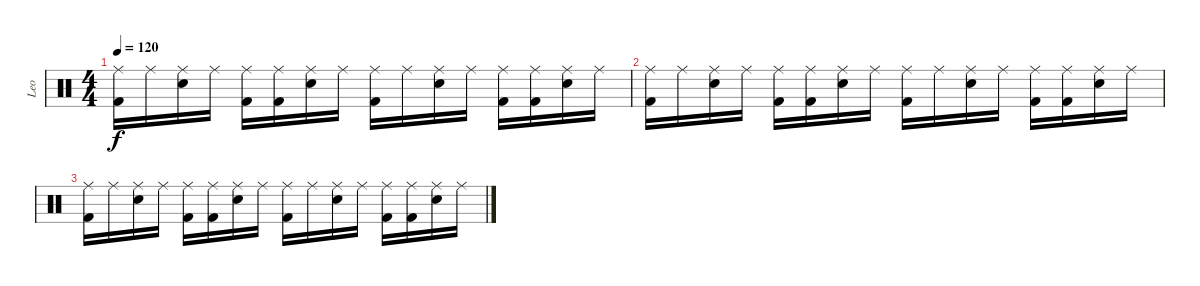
\track ("Leo" "Leo") {instrument percussion}
\staff {score}
\articulation defaults
\ts (4 4)
\tempo 120
\clef neutral
\ks c
("Ride (middle)" "Kick (hit) 2").16{dy f} "Ride (middle)".16 ("Ride (middle)" "Snare (hit) 2").16 "Ride (middle)".16 ("Ride (middle)" "Kick (hit) 2").16 ("Ride (middle)" "Kick (hit) 2").16 ("Ride (middle)" "Snare (hit) 2").16 "Ride (middle)".16 ("Ride (middle)" "Kick (hit) 2").16 "Ride (middle)".16 ("Ride (middle)" "Snare (hit) 2").16 "Ride (middle)".16 ("Ride (middle)" "Kick (hit) 2").16 ("Ride (middle)" "Kick (hit) 2").16 ("Ride (middle)" "Snare (hit) 2").16 "Ride (middle)".16 |
("Ride (middle)" "Kick (hit) 2").16 "Ride (middle)".16 ("Ride (middle)" "Snare (hit) 2").16 "Ride (middle)".16 ("Ride (middle)" "Kick (hit) 2").16 ("Ride (middle)" "Kick (hit) 2").16 ("Ride (middle)" "Snare (hit) 2").16 "Ride (middle)".16 ("Ride (middle)" "Kick (hit) 2").16 "Ride (middle)".16 ("Ride (middle)" "Snare (hit) 2").16 "Ride (middle)".16 ("Ride (middle)" "Kick (hit) 2").16 ("Ride (middle)" "Kick (hit) 2").16 ("Ride (middle)" "Snare (hit) 2").16 "Ride (middle)".16 |
("Ride (middle)" "Kick (hit) 2").16 "Ride (middle)".16 ("Ride (middle)" "Snare (hit) 2").16 "Ride (middle)".16 ("Ride (middle)" "Kick (hit) 2").16 ("Ride (middle)" "Kick (hit) 2").16 ("Ride (middle)" "Snare (hit) 2").16 "Ride (middle)".16 ("Ride (middle)" "Kick (hit) 2").16 "Ride (middle)".16 ("Ride (middle)" "Snare (hit) 2").16 "Ride (middle)".16 ("Ride (middle)" "Kick (hit) 2").16 ("Ride (middle)" "Kick (hit) 2").16 ("Ride (middle)" "Snare (hit) 2").16 "Ride (middle)".16
